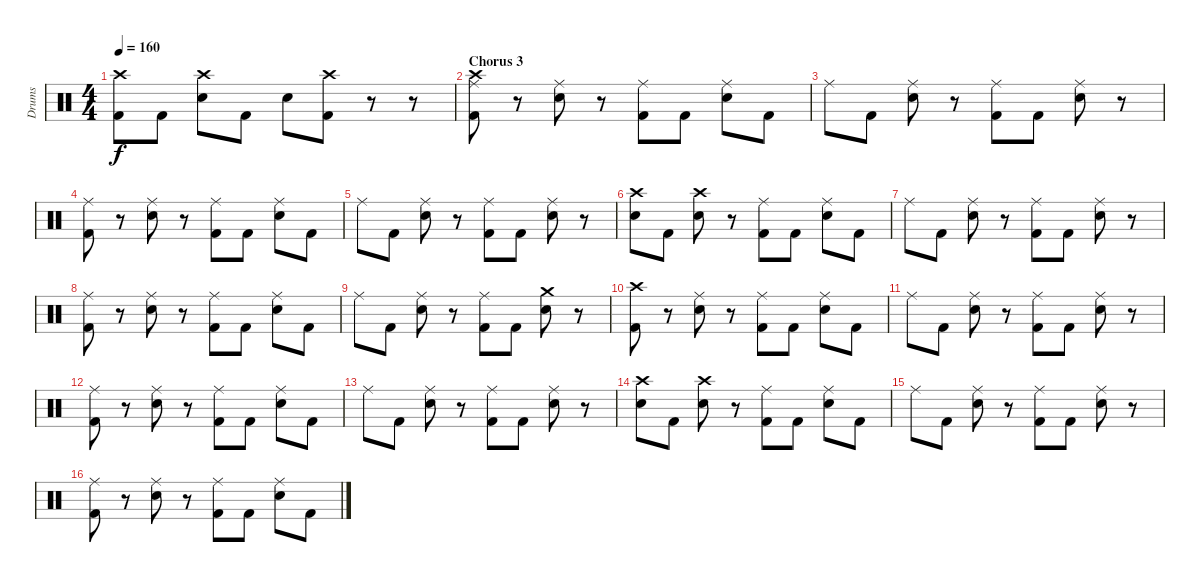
\track ("Drums" "Drums") {instrument percussion}
\staff {score}
\articulation defaults
\ts (4 4)
\tempo 160
\clef neutral
\ks c
("Crash high (hit)" "Kick (hit) 2").8{dy f} "Kick (hit) 2".8 ("Crash high (hit)" "Snare (hit) 2").8 "Kick (hit) 2".8 "Snare (hit) 2".8 ("Crash high (hit)" "Kick (hit) 2").8 r.8 r.8 |
\section ("" "Chorus 3")
("Ride (middle)" "Crash high (hit)" "Kick (hit) 2").8 r.8 ("Ride (middle)" "Snare (hit) 2").8 r.8 ("Ride (middle)" "Kick (hit) 2").8 "Kick (hit) 2".8 ("Ride (middle)" "Snare (hit) 2").8 "Kick (hit) 2".8 |
"Ride (middle)".8 "Kick (hit) 2".8 ("Ride (middle)" "Snare (hit) 2").8 r.8 ("Ride (middle)" "Kick (hit) 2").8 "Kick (hit) 2".8 ("Ride (middle)" "Snare (hit) 2").8 r.8 |
("Ride (middle)" "Kick (hit) 2").8 r.8 ("Ride (middle)" "Snare (hit) 2").8 r.8 ("Ride (middle)" "Kick (hit) 2").8 "Kick (hit) 2".8 ("Ride (middle)" "Snare (hit) 2").8 "Kick (hit) 2".8 |
"Ride (middle)".8 "Kick (hit) 2".8 ("Ride (middle)" "Snare (hit) 2").8 r.8 ("Ride (middle)" "Kick (hit) 2").8 "Kick (hit) 2".8 ("Ride (middle)" "Snare (hit) 2").8 r.8 |
("Crash high (hit)" "Snare (hit) 2").8 "Kick (hit) 2".8 ("Crash high (hit)" "Snare (hit) 2").8 r.8 ("Ride (middle)" "Kick (hit) 2").8 "Kick (hit) 2".8 ("Ride (middle)" "Snare (hit) 2").8 "Kick (hit) 2".8 |
"Ride (middle)".8 "Kick (hit) 2".8 ("Ride (middle)" "Snare (hit) 2").8 r.8 ("Ride (middle)" "Kick (hit) 2").8 "Kick (hit) 2".8 ("Ride (middle)" "Snare (hit) 2").8 r.8 |
("Ride (middle)" "Kick (hit) 2").8 r.8 ("Ride (middle)" "Snare (hit) 2").8 r.8 ("Ride (middle)" "Kick (hit) 2").8 "Kick (hit) 2".8 ("Ride (middle)" "Snare (hit) 2").8 "Kick (hit) 2".8 |
"Ride (middle)".8 "Kick (hit) 2".8 ("Ride (middle)" "Snare (hit) 2").8 r.8 ("Ride (middle)" "Kick (hit) 2").8 "Kick (hit) 2".8 ("Crash medium (hit)" "Snare (hit) 2").8 r.8 |
("Crash high (hit)" "Kick (hit) 2").8 r.8 ("Ride (middle)" "Snare (hit) 2").8 r.8 ("Ride (middle)" "Kick (hit) 2").8 "Kick (hit) 2".8 ("Ride (middle)" "Snare (hit) 2").8 "Kick (hit) 2".8 |
"Ride (middle)".8 "Kick (hit) 2".8 ("Ride (middle)" "Snare (hit) 2").8 r.8 ("Ride (middle)" "Kick (hit) 2").8 "Kick (hit) 2".8 ("Ride (middle)" "Snare (hit) 2").8 r.8 |
("Ride (middle)" "Kick (hit) 2").8 r.8 ("Ride (middle)" "Snare (hit) 2").8 r.8 ("Ride (middle)" "Kick (hit) 2").8 "Kick (hit) 2".8 ("Ride (middle)" "Snare (hit) 2").8 "Kick (hit) 2".8 |
"Ride (middle)".8 "Kick (hit) 2".8 ("Ride (middle)" "Snare (hit) 2").8 r.8 ("Ride (middle)" "Kick (hit) 2").8 "Kick (hit) 2".8 ("Ride (middle)" "Snare (hit) 2").8 r.8 |
("Crash high (hit)" "Snare (hit) 2").8 "Kick (hit) 2".8 ("Crash high (hit)" "Snare (hit) 2").8 r.8 ("Ride (middle)" "Kick (hit) 2").8 "Kick (hit) 2".8 ("Ride (middle)" "Snare (hit) 2").8 "Kick (hit) 2".8 |
"Ride (middle)".8 "Kick (hit) 2".8 ("Ride (middle)" "Snare (hit) 2").8 r.8 ("Ride (middle)" "Kick (hit) 2").8 "Kick (hit) 2".8 ("Ride (middle)" "Snare (hit) 2").8 r.8 |
("Ride (middle)" "Kick (hit) 2").8 r.8 ("Ride (middle)" "Snare (hit) 2").8 r.8 ("Ride (middle)" "Kick (hit) 2").8 "Kick (hit) 2".8 ("Ride (middle)" "Snare (hit) 2").8 "Kick (hit) 2".8
